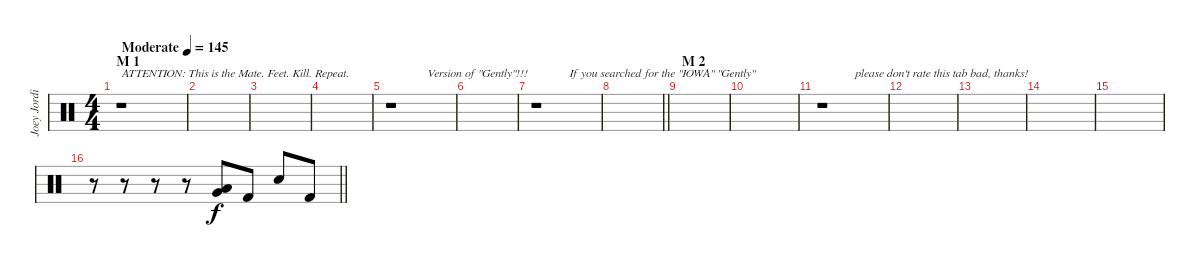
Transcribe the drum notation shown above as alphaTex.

\track ("Joey Jordison" "Joey Jordi") {instrument percussion}
\staff {score}
\articulation defaults
\ts (4 4)
\section ("" "M 1")
\tempo (145 "Moderate")
\clef neutral
\ks c
r.1{txt "ATTENTION: This is the Mate. Feet. Kill. Repeat." dy f} |
|
|
|
r.1{txt "            Version of \"Gently\"!!!"} |
|
r.1{txt "           If you searched for the \"IOWA\" \"Gently\""} |
\barLineRight lightlight
|
\section ("" "M 2")
|
|
r.1{txt "           please don't rate this tab bad, thanks!"} |
|
|
|
|
\barLineRight lightlight
r.8 r.8 r.8 r.8 ("Very Low Tom (hit)" "Low Floor Tom (hit)").8 "Kick (hit) 2".8 "Electric Snare (hit)".8 "Kick (hit) 2".8
